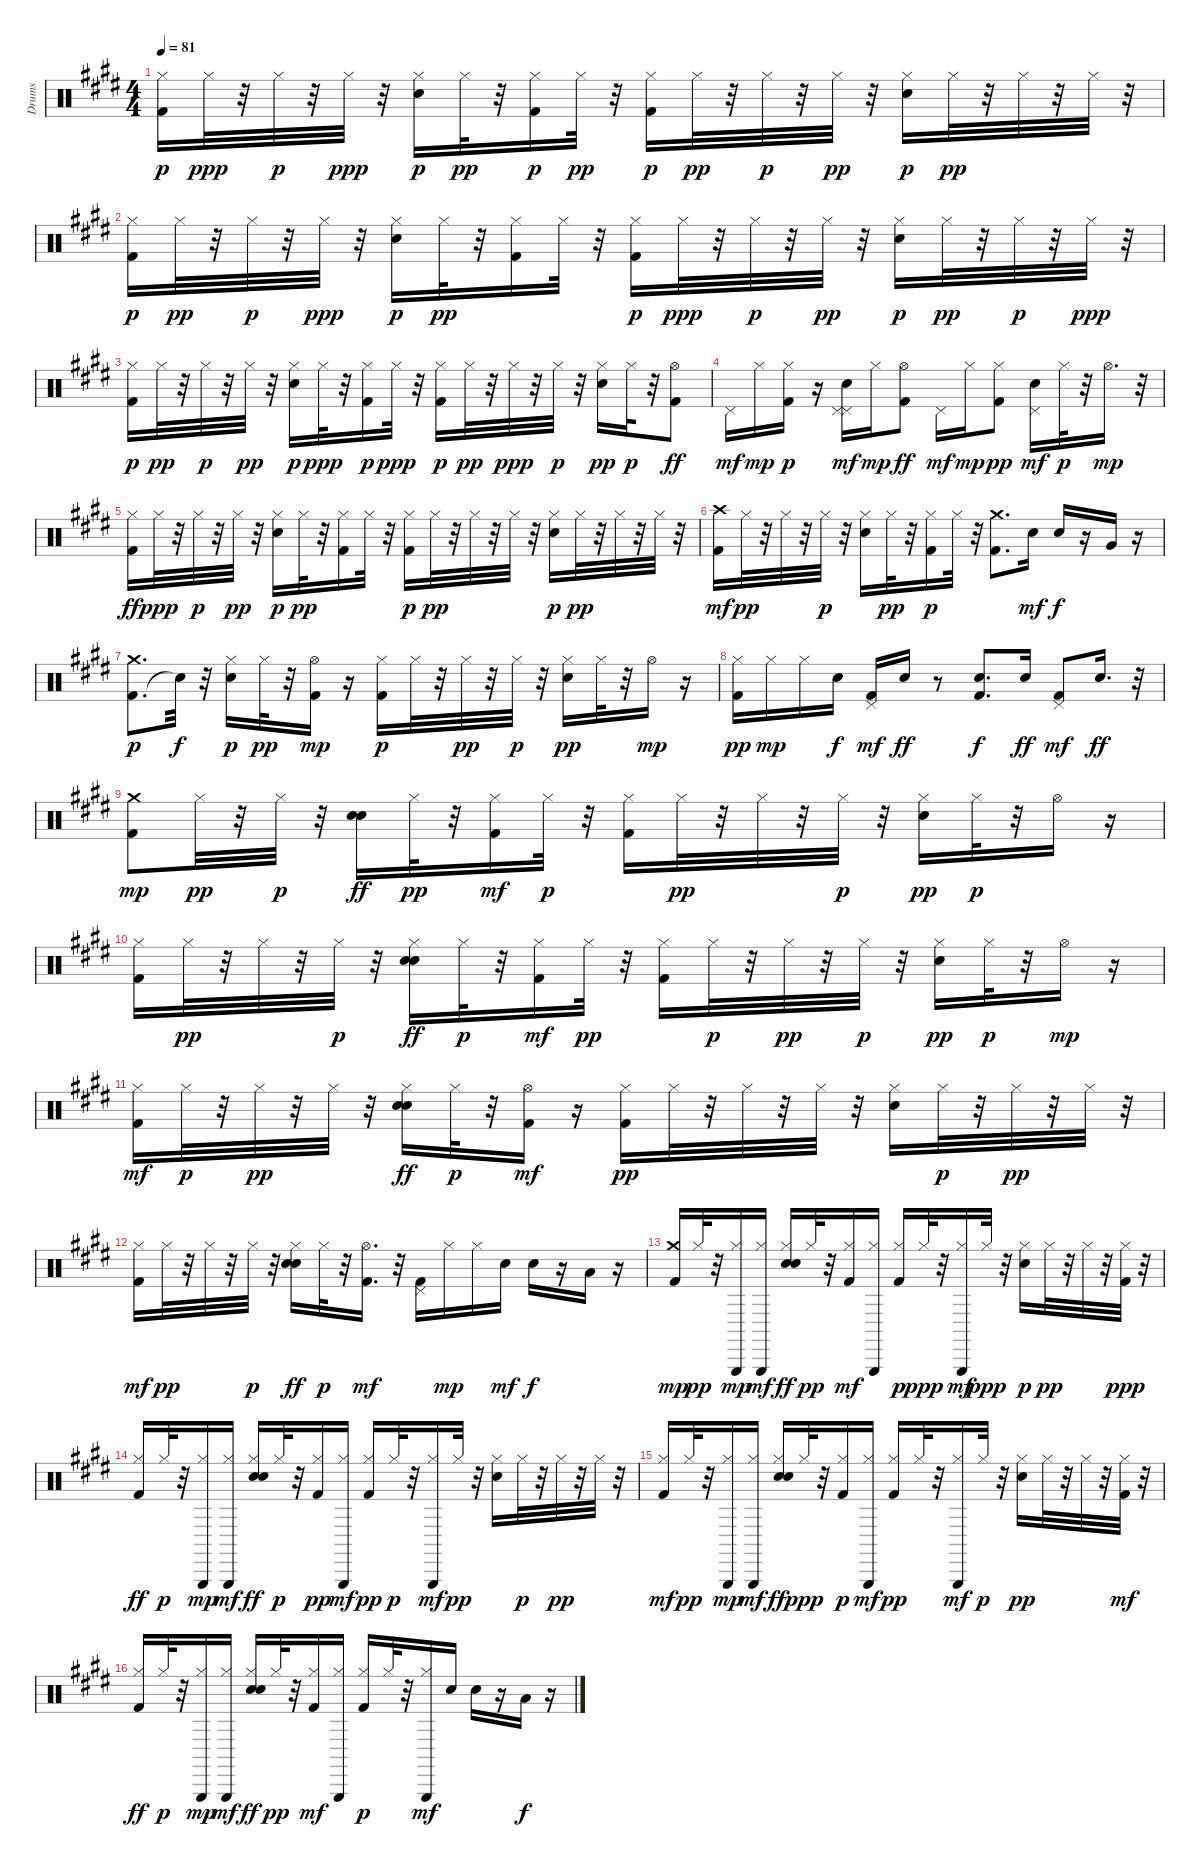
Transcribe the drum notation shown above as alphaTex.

\track ("Drums" "Drums") {instrument percussion}
\staff {score}
\articulation defaults
\ts (4 4)
\tempo 81
\clef neutral
\ks c#minor
("Hi-Hat (closed)" "Kick (hit) 2").16{dy p} "Hi-Hat (closed)".32{dy ppp} r.32 "Hi-Hat (closed)".32{dy p} r.32 "Hi-Hat (closed)".32{dy ppp} r.32 ("Snare (hit) 2" "Hi-Hat (closed)").16{dy p} "Hi-Hat (closed)".32{dy pp} r.32 ("Hi-Hat (closed)" "Kick (hit) 2").16{dy p} "Hi-Hat (closed)".32{dy pp} r.32 ("Hi-Hat (closed)" "Kick (hit) 2").16{dy p} "Hi-Hat (closed)".32{dy pp} r.32 "Hi-Hat (closed)".32{dy p} r.32 "Hi-Hat (closed)".32{dy pp} r.32 ("Snare (hit) 2" "Hi-Hat (closed)").16{dy p} "Hi-Hat (closed)".32{dy pp} r.32 "Hi-Hat (closed)".32 r.32 "Hi-Hat (closed)".32 r.32 |
\ks e
("Hi-Hat (closed)" "Kick (hit) 2").16{dy p} "Hi-Hat (closed)".32{dy pp} r.32 "Hi-Hat (closed)".32{dy p} r.32 "Hi-Hat (closed)".32{dy ppp} r.32 ("Snare (hit) 2" "Hi-Hat (closed)").16{dy p} "Hi-Hat (closed)".32{dy pp} r.32 ("Hi-Hat (closed)" "Kick (hit) 2").16 "Hi-Hat (closed)".32 r.32 ("Hi-Hat (closed)" "Kick (hit) 2").16{dy p} "Hi-Hat (closed)".32{dy ppp} r.32 "Hi-Hat (closed)".32{dy p} r.32 "Hi-Hat (closed)".32{dy pp} r.32 ("Snare (hit) 2" "Hi-Hat (closed)").16{dy p} "Hi-Hat (closed)".32{dy pp} r.32 "Hi-Hat (closed)".32{dy p} r.32 "Hi-Hat (closed)".32{dy ppp} r.32 |
\ks c#minor
("Hi-Hat (closed)" "Kick (hit) 2").16{dy p} "Hi-Hat (closed)".32{dy pp} r.32 "Hi-Hat (closed)".32{dy p} r.32 "Hi-Hat (closed)".32{dy pp} r.32 ("Snare (hit) 2" "Hi-Hat (closed)").16{dy p} "Hi-Hat (closed)".32{dy ppp} r.32 ("Hi-Hat (closed)" "Kick (hit) 2").16{dy p} "Hi-Hat (closed)".32{dy ppp} r.32 ("Hi-Hat (closed)" "Kick (hit) 2").16{dy p} "Hi-Hat (closed)".32{dy pp} r.32 "Hi-Hat (closed)".32{dy ppp} r.32 "Hi-Hat (closed)".32{dy p} r.32 ("Snare (hit) 2" "Hi-Hat (closed)").16{dy pp} "Hi-Hat (closed)".32{dy p} r.32 ("Hi-Hat (open)" "Kick (hit) 2").8{dy ff} |
"Pedal Hi-Hat (hit)".16{dy mf} "Hi-Hat (closed)".16{dy mp} ("Hi-Hat (closed)" "Kick (hit) 2").16{dy p} r.16 ("Snare (hit) 2" "Pedal Hi-Hat (hit)" "Pedal Hi-Hat (hit)").16{dy mf} "Hi-Hat (closed)".16{dy mp} ("Hi-Hat (open)" "Kick (hit) 2").8{dy ff} "Pedal Hi-Hat (hit)".16{dy mf} "Hi-Hat (closed)".16{dy mp} ("Hi-Hat (closed)" "Kick (hit) 2").8{dy pp} ("Snare (hit) 2" "Pedal Hi-Hat (hit)").16{dy mf} "Hi-Hat (closed)".32{dy p} r.32 "Hi-Hat (open)".16{d dy mp} r.32 |
("Hi-Hat (closed)" "Kick (hit) 2").16{dy ff} "Hi-Hat (closed)".32{dy ppp} r.32 "Hi-Hat (closed)".32{dy p} r.32 "Hi-Hat (closed)".32{dy pp} r.32 ("Snare (hit) 2" "Hi-Hat (closed)").16{dy p} "Hi-Hat (closed)".32{dy pp} r.32 ("Hi-Hat (closed)" "Kick (hit) 2").16 "Hi-Hat (closed)".32 r.32 ("Hi-Hat (closed)" "Kick (hit) 2").16{dy p} "Hi-Hat (closed)".32{dy pp} r.32 "Hi-Hat (closed)".32 r.32 "Hi-Hat (closed)".32 r.32 ("Snare (hit) 2" "Hi-Hat (closed)").16{dy p} "Hi-Hat (closed)".32{dy pp} r.32 "Hi-Hat (closed)".32 r.32 "Hi-Hat (closed)".32 r.32 |
\ks e
("Crash high (hit)" "Kick (hit) 2").16{dy mf} "Hi-Hat (closed)".32{dy pp} r.32 "Hi-Hat (closed)".32 r.32 "Hi-Hat (closed)".32{dy p} r.32 ("Snare (hit) 2" "Hi-Hat (closed)").16 "Hi-Hat (closed)".32{dy pp} r.32 ("Hi-Hat (closed)" "Kick (hit) 2").16{dy p} "Hi-Hat (closed)".32 r.32 ("Kick (hit) 2" "Crash medium (hit)").8{d} "Snare (hit) 2".16{dy mf} "Snare (hit) 2".16{dy f} r.16 "Very Low Tom (hit)".16 r.16 |
\ks c#minor
("Kick (hit) 2" "Crash medium (hit)").8{d dy p} "Snare (hit)"{t}.32{dy f} r.32 ("Snare (hit) 2" "Hi-Hat (closed)").16{dy p} "Hi-Hat (closed)".32{dy pp} r.32 ("Hi-Hat (open)" "Kick (hit) 2").16{dy mp} r.16 ("Hi-Hat (closed)" "Kick (hit) 2").16{dy p} "Hi-Hat (closed)".32 r.32 "Hi-Hat (closed)".32{dy pp} r.32 "Hi-Hat (closed)".32{dy p} r.32 ("Snare (hit) 2" "Hi-Hat (closed)").16{dy pp} "Hi-Hat (closed)".32 r.32 "Hi-Hat (open)".16{dy mp} r.16 |
("Hi-Hat (closed)" "Kick (hit) 2").16{dy pp} "Hi-Hat (closed)".16{dy mp} "Hi-Hat (closed)".16 "Snare (hit) 2".16{dy f} ("Pedal Hi-Hat (hit)" "Kick (hit) 2").16{dy mf} "Snare (hit) 2".16{dy ff} r.8 ("Snare (hit) 2" "Kick (hit) 2").8{d dy f} "Snare (hit) 2".16{dy ff} ("Pedal Hi-Hat (hit)" "Kick (hit) 2").8{dy mf} "Snare (hit) 2".16{d dy ff} r.32 |
("Kick (hit) 2" "Crash medium (hit)").8{dy mp} "Hi-Hat (closed)".32{dy pp} r.32 "Hi-Hat (closed)".32{dy p} r.32 ("Snare (hit) 2" "Hand Clap (hit)").16{dy ff} "Hi-Hat (closed)".32{dy pp} r.32 ("Hi-Hat (closed)" "Kick (hit) 2").16{dy mf} "Hi-Hat (closed)".32{dy p} r.32 ("Hi-Hat (closed)" "Kick (hit) 2").16 "Hi-Hat (closed)".32{dy pp} r.32 "Hi-Hat (closed)".32 r.32 "Hi-Hat (closed)".32{dy p} r.32 ("Snare (hit) 2" "Hi-Hat (closed)").16{dy pp} "Hi-Hat (closed)".32{dy p} r.32 "Hi-Hat (open)".16 r.16 |
\ks e
("Hi-Hat (closed)" "Kick (hit) 2").16 "Hi-Hat (closed)".32{dy pp} r.32 "Hi-Hat (closed)".32 r.32 "Hi-Hat (closed)".32{dy p} r.32 ("Snare (hit) 2" "Hi-Hat (closed)" "Hand Clap (hit)").16{dy ff} "Hi-Hat (closed)".32{dy p} r.32 ("Hi-Hat (closed)" "Kick (hit) 2").16{dy mf} "Hi-Hat (closed)".32{dy pp} r.32 ("Hi-Hat (closed)" "Kick (hit) 2").16 "Hi-Hat (closed)".32{dy p} r.32 "Hi-Hat (closed)".32{dy pp} r.32 "Hi-Hat (closed)".32{dy p} r.32 ("Snare (hit) 2" "Hi-Hat (closed)").16{dy pp} "Hi-Hat (closed)".32{dy p} r.32 "Hi-Hat (open)".16{dy mp} r.16 |
\ks c#minor
("Hi-Hat (closed)" "Kick (hit) 2").16{dy mf} "Hi-Hat (closed)".32{dy p} r.32 "Hi-Hat (closed)".32{dy pp} r.32 "Hi-Hat (closed)".32 r.32 ("Snare (hit) 2" "Hi-Hat (closed)" "Hand Clap (hit)").16{dy ff} "Hi-Hat (closed)".32{dy p} r.32 ("Hi-Hat (open)" "Kick (hit) 2").16{dy mf} r.16 ("Hi-Hat (closed)" "Kick (hit) 2").16{dy pp} "Hi-Hat (closed)".32 r.32 "Hi-Hat (closed)".32 r.32 "Hi-Hat (closed)".32 r.32 ("Snare (hit) 2" "Hi-Hat (closed)").16 "Hi-Hat (closed)".32{dy p} r.32 "Hi-Hat (closed)".32{dy pp} r.32 "Hi-Hat (closed)".32 r.32 |
("Hi-Hat (closed)" "Kick (hit) 2").16{dy mf} "Hi-Hat (closed)".32{dy pp} r.32 "Hi-Hat (closed)".32 r.32 "Hi-Hat (closed)".32{dy p} r.32 ("Snare (hit) 2" "Hi-Hat (closed)" "Hand Clap (hit)").16{dy ff} "Hi-Hat (closed)".32{dy p} r.32 ("Hi-Hat (open)" "Kick (hit) 2").16{d dy mf} r.32 ("Pedal Hi-Hat (hit)" "Kick (hit) 2").16 "Hi-Hat (closed)".16{dy mp} "Hi-Hat (closed)".16 "Snare (hit) 2".16{dy mf} "Snare (hit) 2".16{dy f} r.16 "Low Tom (hit)".16 r.16 |
("Kick (hit) 2" "Crash medium (hit)").16{dy mp} "Hi-Hat (closed)".32{dy pp} r.32 ("Hi-Hat (closed)" "Triangle (hit)").16{dy mp} ("Hi-Hat (closed)" "Triangle (hit)").16{dy mf} ("Snare (hit) 2" "Hi-Hat (closed)" "Hand Clap (hit)").16{dy ff} "Hi-Hat (closed)".32{dy pp} r.32 ("Hi-Hat (closed)" "Kick (hit) 2").16{dy mf} ("Hi-Hat (closed)" "Triangle (hit)").16 ("Hi-Hat (closed)" "Kick (hit) 2").16{dy p} "Hi-Hat (closed)".32{dy ppp} r.32 ("Hi-Hat (closed)" "Triangle (hit)").16{dy mf} "Hi-Hat (closed)".32{dy ppp} r.32 ("Snare (hit) 2" "Hi-Hat (closed)").16{dy p} "Hi-Hat (closed)".32{dy pp} r.32 "Hi-Hat (closed)".32 r.32 ("Hi-Hat (closed)" "Kick (hit) 2").32{dy ppp} r.32 |
\ks e
("Hi-Hat (closed)" "Kick (hit) 2").16{dy ff} "Hi-Hat (closed)".32{dy p} r.32 ("Hi-Hat (closed)" "Triangle (hit)").16{dy mp} ("Hi-Hat (closed)" "Triangle (hit)").16{dy mf} ("Snare (hit) 2" "Hi-Hat (closed)" "Hand Clap (hit)").16{dy ff} "Hi-Hat (closed)".32{dy p} r.32 ("Hi-Hat (closed)" "Kick (hit) 2").16{dy pp} ("Hi-Hat (closed)" "Triangle (hit)").16{dy mf} ("Hi-Hat (closed)" "Kick (hit) 2").16{dy pp} "Hi-Hat (closed)".32{dy p} r.32 ("Hi-Hat (closed)" "Triangle (hit)").16{dy mf} "Hi-Hat (closed)".32{dy pp} r.32 ("Snare (hit) 2" "Hi-Hat (closed)").16 "Hi-Hat (closed)".32{dy p} r.32 "Hi-Hat (closed)".32{dy pp} r.32 "Hi-Hat (closed)".32 r.32 |
\ks c#minor
("Hi-Hat (closed)" "Kick (hit) 2").16{dy mf} "Hi-Hat (closed)".32{dy pp} r.32 ("Hi-Hat (closed)" "Triangle (hit)").16{dy mp} ("Hi-Hat (closed)" "Triangle (hit)").16{dy mf} ("Snare (hit) 2" "Hi-Hat (closed)" "Hand Clap (hit)").16{dy ff} "Hi-Hat (closed)".32{dy ppp} r.32 ("Hi-Hat (closed)" "Kick (hit) 2").16{dy p} ("Hi-Hat (closed)" "Triangle (hit)").16{dy mf} ("Hi-Hat (closed)" "Kick (hit) 2").16{dy pp} "Hi-Hat (closed)".32 r.32 ("Hi-Hat (closed)" "Triangle (hit)").16{dy mf} "Hi-Hat (closed)".32{dy p} r.32 ("Snare (hit) 2" "Hi-Hat (closed)").16{dy pp} "Hi-Hat (closed)".32 r.32 "Hi-Hat (closed)".32 r.32 ("Hi-Hat (closed)" "Kick (hit) 2").32{dy mf} r.32 |
("Hi-Hat (closed)" "Kick (hit) 2").16{dy ff} "Hi-Hat (closed)".32{dy p} r.32 ("Hi-Hat (closed)" "Triangle (hit)").16{dy mp} ("Hi-Hat (closed)" "Triangle (hit)").16{dy mf} ("Snare (hit) 2" "Hi-Hat (closed)" "Hand Clap (hit)").16{dy ff} "Hi-Hat (closed)".32{dy pp} r.32 ("Hi-Hat (closed)" "Kick (hit) 2").16{dy mf} ("Hi-Hat (closed)" "Triangle (hit)").16 ("Hi-Hat (closed)" "Kick (hit) 2").16{dy p} "Hi-Hat (closed)".32 r.32 ("Hi-Hat (closed)" "Triangle (hit)").16{dy mf} "Snare (hit) 2".16 "Snare (hit) 2".16 r.16 "Low Tom (hit)".16{dy f} r.16
